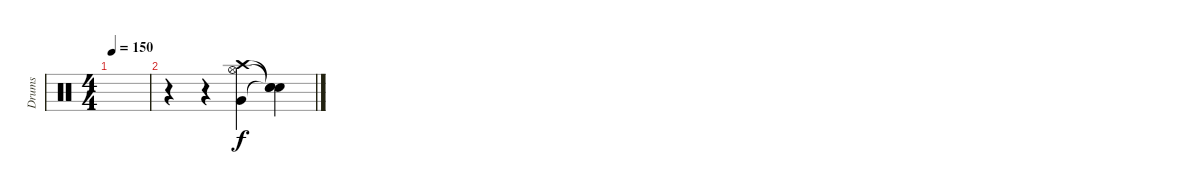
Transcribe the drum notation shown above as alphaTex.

\track ("Drums" "Drums") {instrument percussion}
\staff {score}
\articulation defaults
\ts (4 4)
\tempo 150
\clef neutral
\ks c
|
r.4 r.4 ("Crash high (hit)" "Very Low Tom (hit)" "Hi-Hat (open)").4 ("Snare (hit)"{t} "Snare (hit)"{t} "Snare (hit)"{t}).4
